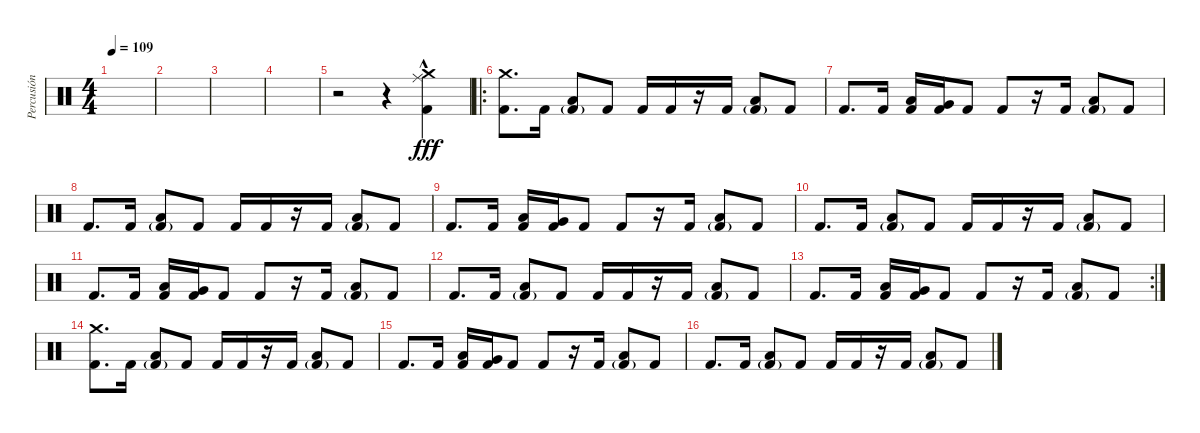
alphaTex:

\track ("Percusión" "Percusión") {instrument percussion}
\staff {score}
\articulation defaults
\ts (4 4)
\tempo 109
\clef neutral
\ks c
|
|
|
|
r.2 r.4 ("Crash medium (hit)"{hac} "Ride (middle)"{hac} "Kick (hit) 2"{hac}).4{dy fff} |
\ro
("Crash medium (hit)" "Kick (hit) 2").8{d} "Kick (hit) 2".16 ("Low Tom (hit)" "Kick (hit) 2"{g}).8 "Kick (hit) 2".8 "Kick (hit) 2".16 "Kick (hit) 2".16 r.16 "Kick (hit) 2".16 ("Low Tom (hit)" "Kick (hit) 2"{g}).8 "Kick (hit) 2".8 |
"Kick (hit) 2".8{d} "Kick (hit) 2".16 ("Low Tom (hit)" "Kick (hit) 2").16 ("Very Low Tom (hit)" "Kick (hit) 2").16 "Kick (hit) 2".8 "Kick (hit) 2".8 r.16 "Kick (hit) 2".16 ("Low Tom (hit)" "Kick (hit) 2"{g}).8 "Kick (hit) 2".8 |
"Kick (hit) 2".8{d} "Kick (hit) 2".16 ("Low Tom (hit)" "Kick (hit) 2"{g}).8 "Kick (hit) 2".8 "Kick (hit) 2".16 "Kick (hit) 2".16 r.16 "Kick (hit) 2".16 ("Low Tom (hit)" "Kick (hit) 2"{g}).8 "Kick (hit) 2".8 |
"Kick (hit) 2".8{d} "Kick (hit) 2".16 ("Low Tom (hit)" "Kick (hit) 2").16 ("Very Low Tom (hit)" "Kick (hit) 2").16 "Kick (hit) 2".8 "Kick (hit) 2".8 r.16 "Kick (hit) 2".16 ("Low Tom (hit)" "Kick (hit) 2"{g}).8 "Kick (hit) 2".8 |
"Kick (hit) 2".8{d} "Kick (hit) 2".16 ("Low Tom (hit)" "Kick (hit) 2"{g}).8 "Kick (hit) 2".8 "Kick (hit) 2".16 "Kick (hit) 2".16 r.16 "Kick (hit) 2".16 ("Low Tom (hit)" "Kick (hit) 2"{g}).8 "Kick (hit) 2".8 |
"Kick (hit) 2".8{d} "Kick (hit) 2".16 ("Low Tom (hit)" "Kick (hit) 2").16 ("Very Low Tom (hit)" "Kick (hit) 2").16 "Kick (hit) 2".8 "Kick (hit) 2".8 r.16 "Kick (hit) 2".16 ("Low Tom (hit)" "Kick (hit) 2"{g}).8 "Kick (hit) 2".8 |
"Kick (hit) 2".8{d} "Kick (hit) 2".16 ("Low Tom (hit)" "Kick (hit) 2"{g}).8 "Kick (hit) 2".8 "Kick (hit) 2".16 "Kick (hit) 2".16 r.16 "Kick (hit) 2".16 ("Low Tom (hit)" "Kick (hit) 2"{g}).8 "Kick (hit) 2".8 |
\rc 2 "Kick (hit) 2".8{d} "Kick (hit) 2".16
("Low Tom (hit)" "Kick (hit) 2").16 ("Very Low Tom (hit)" "Kick (hit) 2").16 "Kick (hit) 2".8 "Kick (hit) 2".8 r.16 "Kick (hit) 2".16 ("Low Tom (hit)" "Kick (hit) 2"{g}).8 "Kick (hit) 2".8 |
("Crash medium (hit)" "Kick (hit) 2").8{d} "Kick (hit) 2".16 ("Low Tom (hit)" "Kick (hit) 2"{g}).8 "Kick (hit) 2".8 "Kick (hit) 2".16 "Kick (hit) 2".16 r.16 "Kick (hit) 2".16 ("Low Tom (hit)" "Kick (hit) 2"{g}).8 "Kick (hit) 2".8 |
"Kick (hit) 2".8{d} "Kick (hit) 2".16 ("Low Tom (hit)" "Kick (hit) 2").16 ("Very Low Tom (hit)" "Kick (hit) 2").16 "Kick (hit) 2".8 "Kick (hit) 2".8 r.16 "Kick (hit) 2".16 ("Low Tom (hit)" "Kick (hit) 2"{g}).8 "Kick (hit) 2".8 |
"Kick (hit) 2".8{d} "Kick (hit) 2".16 ("Low Tom (hit)" "Kick (hit) 2"{g}).8 "Kick (hit) 2".8 "Kick (hit) 2".16 "Kick (hit) 2".16 r.16 "Kick (hit) 2".16 ("Low Tom (hit)" "Kick (hit) 2"{g}).8 "Kick (hit) 2".8
